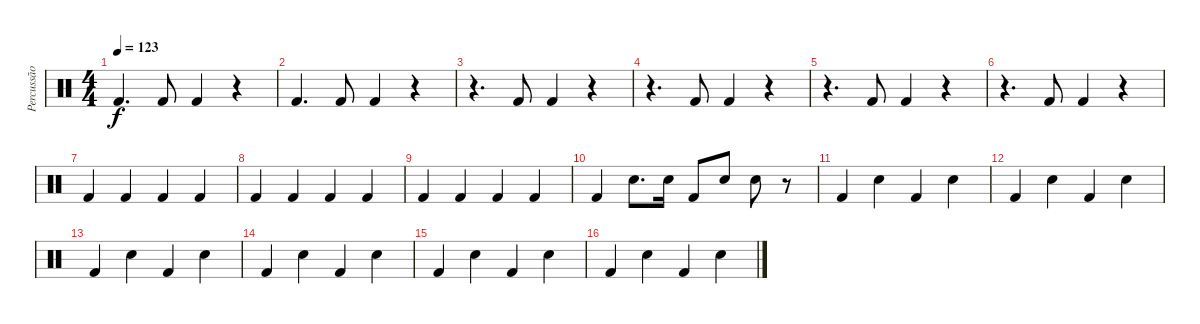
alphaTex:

\track ("Percussão" "Percussão") {instrument percussion}
\staff {score}
\articulation defaults
\ts (4 4)
\tempo 123
\clef neutral
\ks c "Kick (hit) 2".4{d dy f} "Kick (hit) 2".8 "Kick (hit) 2".4
r.4 |
"Kick (hit) 2".4{d} "Kick (hit) 2".8 "Kick (hit) 2".4 r.4 |
r.4{d} "Kick (hit) 2".8 "Kick (hit) 2".4 r.4 |
r.4{d} "Kick (hit) 2".8 "Kick (hit) 2".4 r.4 |
r.4{d} "Kick (hit) 2".8 "Kick (hit) 2".4 r.4 |
r.4{d} "Kick (hit) 2".8 "Kick (hit) 2".4 r.4 |
"Kick (hit) 2".4 "Kick (hit) 2".4 "Kick (hit) 2".4 "Kick (hit) 2".4 |
"Kick (hit) 2".4 "Kick (hit) 2".4 "Kick (hit) 2".4 "Kick (hit) 2".4 |
"Kick (hit) 2".4 "Kick (hit) 2".4 "Kick (hit) 2".4 "Kick (hit) 2".4 |
"Kick (hit) 2".4 "Snare (hit) 2".8{d} "Snare (hit) 2".16 "Kick (hit) 2".8 "Snare (hit) 2".8 "Snare (hit) 2".8 r.8 |
"Kick (hit) 2".4 "Snare (hit) 2".4 "Kick (hit) 2".4 "Snare (hit) 2".4 |
"Kick (hit) 2".4 "Snare (hit) 2".4 "Kick (hit) 2".4 "Snare (hit) 2".4 |
"Kick (hit) 2".4 "Snare (hit) 2".4 "Kick (hit) 2".4 "Snare (hit) 2".4 |
"Kick (hit) 2".4 "Snare (hit) 2".4 "Kick (hit) 2".4 "Snare (hit) 2".4 |
"Kick (hit) 2".4 "Snare (hit) 2".4 "Kick (hit) 2".4 "Snare (hit) 2".4 |
"Kick (hit) 2".4 "Snare (hit) 2".4 "Kick (hit) 2".4 "Snare (hit) 2".4
